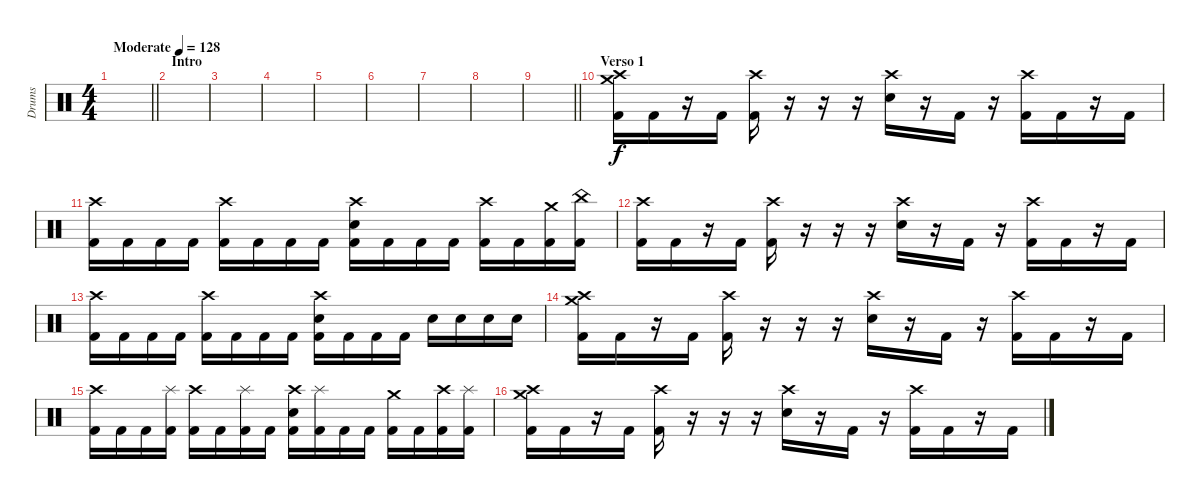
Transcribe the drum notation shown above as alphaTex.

\track ("Drums" "Drums") {instrument percussion}
\staff {score}
\articulation defaults
\ts (4 4)
\tempo (128 "Moderate")
\clef neutral
\barLineRight lightlight
\ks c
|
\section ("" "Intro")
|
|
|
|
|
|
|
\barLineRight lightlight
|
\section ("" "Verso 1")
("Crash high (hit)" "Crash medium (hit)" "Kick (hit) 2").16 "Kick (hit) 2".16 r.16 "Kick (hit) 2".16 ("Crash high (hit)" "Kick (hit) 2").16 r.16 r.16 r.16 ("Crash high (hit)" "Electric Snare (hit)").16 r.16 "Kick (hit) 2".16 r.16 ("Crash high (hit)" "Kick (hit) 2").16 "Kick (hit) 2".16 r.16 "Kick (hit) 2".16 |
("Crash high (hit)" "Kick (hit) 2").16 "Kick (hit) 2".16 "Kick (hit) 2".16 "Kick (hit) 2".16 ("Crash high (hit)" "Kick (hit) 2").16 "Kick (hit) 2".16 "Kick (hit) 2".16 "Kick (hit) 2".16 ("Crash high (hit)" "Electric Snare (hit)" "Kick (hit) 2").16 "Kick (hit) 2".16 "Kick (hit) 2".16 "Kick (hit) 2".16 ("Crash high (hit)" "Kick (hit) 2").16 "Kick (hit) 2".16 ("Crash medium (hit)" "Kick (hit) 2").16 ("China (hit)" "Kick (hit) 2").16 |
("Crash high (hit)" "Kick (hit) 2").16 "Kick (hit) 2".16 r.16 "Kick (hit) 2".16 ("Crash high (hit)" "Kick (hit) 2").16 r.16 r.16 r.16 ("Crash high (hit)" "Electric Snare (hit)").16 r.16 "Kick (hit) 2".16 r.16 ("Crash high (hit)" "Kick (hit) 2").16 "Kick (hit) 2".16 r.16 "Kick (hit) 2".16 |
("Crash high (hit)" "Kick (hit) 2").16 "Kick (hit) 2".16 "Kick (hit) 2".16 "Kick (hit) 2".16 ("Crash high (hit)" "Kick (hit) 2").16 "Kick (hit) 2".16 "Kick (hit) 2".16 "Kick (hit) 2".16 ("Crash high (hit)" "Electric Snare (hit)" "Kick (hit) 2").16 "Kick (hit) 2".16 "Kick (hit) 2".16 "Kick (hit) 2".16 "Electric Snare (hit)".16 "Electric Snare (hit)".16 "Electric Snare (hit)".16 "Electric Snare (hit)".16 |
("Crash high (hit)" "Crash medium (hit)" "Kick (hit) 2").16 "Kick (hit) 2".16 r.16 "Kick (hit) 2".16 ("Crash high (hit)" "Kick (hit) 2").16 r.16 r.16 r.16 ("Crash high (hit)" "Electric Snare (hit)").16 r.16 "Kick (hit) 2".16 r.16 ("Crash high (hit)" "Kick (hit) 2").16 "Kick (hit) 2".16 r.16 "Kick (hit) 2".16 |
("Crash high (hit)" "Kick (hit) 2").16 "Kick (hit) 2".16 "Kick (hit) 2".16 ("Splash (hit)" "Kick (hit) 2").16 ("Crash high (hit)" "Kick (hit) 2").16 "Kick (hit) 2".16 ("Splash (hit)" "Kick (hit) 2").16 "Kick (hit) 2".16 ("Crash high (hit)" "Electric Snare (hit)" "Kick (hit) 2").16 ("Splash (hit)" "Kick (hit) 2").16 "Kick (hit) 2".16 "Kick (hit) 2".16 ("Crash medium (hit)" "Kick (hit) 2").16 "Kick (hit) 2".16 ("Crash high (hit)" "Kick (hit) 2").16 ("Splash (hit)" "Kick (hit) 2").16 |
("Crash high (hit)" "Crash medium (hit)" "Kick (hit) 2").16 "Kick (hit) 2".16 r.16 "Kick (hit) 2".16 ("Crash high (hit)" "Kick (hit) 2").16 r.16 r.16 r.16 ("Crash high (hit)" "Electric Snare (hit)").16 r.16 "Kick (hit) 2".16 r.16 ("Crash high (hit)" "Kick (hit) 2").16 "Kick (hit) 2".16 r.16 "Kick (hit) 2".16
